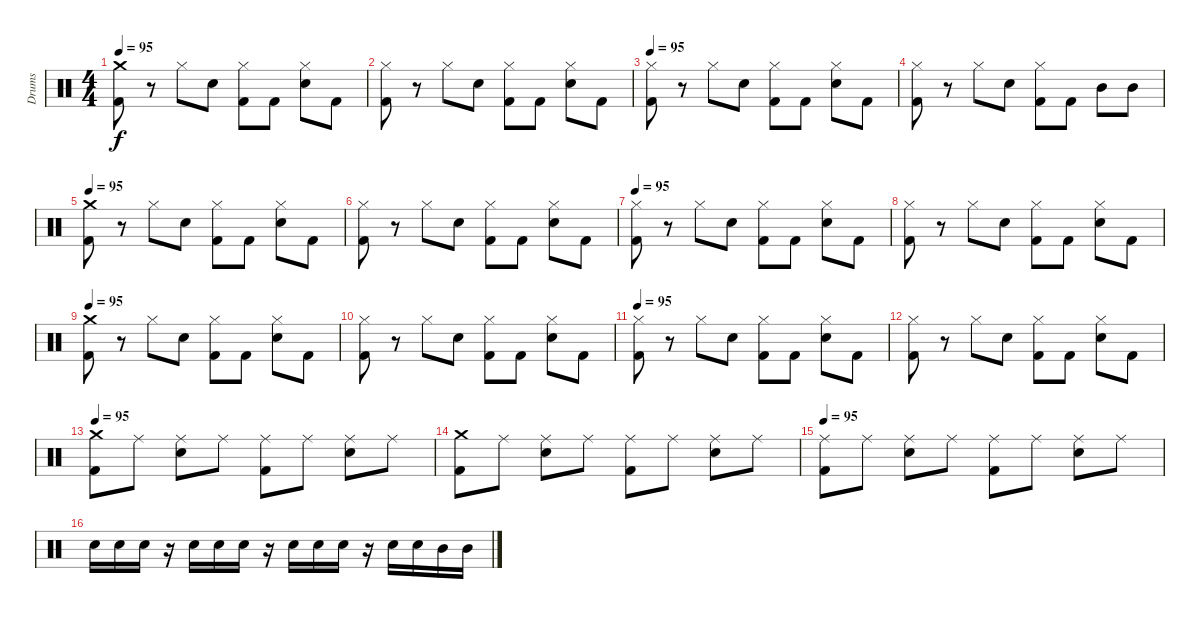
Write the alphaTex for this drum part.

\track ("Drums" "Drums") {instrument percussion}
\staff {score}
\articulation defaults
\ts (4 4)
\tempo 95
\clef neutral
\ks c
("Crash medium (hit)" "Kick (hit) 2").8{dy f} r.8 "Hi-Hat (closed)".8 "Electric Snare (hit)".8 ("Hi-Hat (closed)" "Kick (hit) 2").8 "Kick (hit) 2".8 ("Hi-Hat (closed)" "Electric Snare (hit)").8 "Kick (hit) 2".8 |
("Hi-Hat (closed)" "Kick (hit) 2").8 r.8 "Hi-Hat (closed)".8 "Electric Snare (hit)".8 ("Hi-Hat (closed)" "Kick (hit) 2").8 "Kick (hit) 2".8 ("Hi-Hat (closed)" "Electric Snare (hit)").8 "Kick (hit) 2".8 |
\tempo 95
("Hi-Hat (closed)" "Kick (hit) 2").8 r.8 "Hi-Hat (closed)".8 "Electric Snare (hit)".8 ("Hi-Hat (closed)" "Kick (hit) 2").8 "Kick (hit) 2".8 ("Hi-Hat (closed)" "Electric Snare (hit)").8 "Kick (hit) 2".8 |
("Hi-Hat (closed)" "Kick (hit) 2").8 r.8 "Hi-Hat (closed)".8 "Electric Snare (hit)".8 ("Hi-Hat (closed)" "Kick (hit) 2").8 "Kick (hit) 2".8 "Mid Tom (hit)".8 "Mid Tom (hit)".8 |
\tempo 95
("Crash medium (hit)" "Kick (hit) 2").8 r.8 "Hi-Hat (closed)".8 "Electric Snare (hit)".8 ("Hi-Hat (closed)" "Kick (hit) 2").8 "Kick (hit) 2".8 ("Hi-Hat (closed)" "Electric Snare (hit)").8 "Kick (hit) 2".8 |
("Hi-Hat (closed)" "Kick (hit) 2").8 r.8 "Hi-Hat (closed)".8 "Electric Snare (hit)".8 ("Hi-Hat (closed)" "Kick (hit) 2").8 "Kick (hit) 2".8 ("Hi-Hat (closed)" "Electric Snare (hit)").8 "Kick (hit) 2".8 |
\tempo 95
("Hi-Hat (closed)" "Kick (hit) 2").8 r.8 "Hi-Hat (closed)".8 "Electric Snare (hit)".8 ("Hi-Hat (closed)" "Kick (hit) 2").8 "Kick (hit) 2".8 ("Hi-Hat (closed)" "Electric Snare (hit)").8 "Kick (hit) 2".8 |
("Hi-Hat (closed)" "Kick (hit) 2").8 r.8 "Hi-Hat (closed)".8 "Electric Snare (hit)".8 ("Hi-Hat (closed)" "Kick (hit) 2").8 "Kick (hit) 2".8 ("Hi-Hat (closed)" "Electric Snare (hit)").8 "Kick (hit) 2".8 |
\tempo 95
("Crash medium (hit)" "Kick (hit) 2").8 r.8 "Hi-Hat (closed)".8 "Electric Snare (hit)".8 ("Hi-Hat (closed)" "Kick (hit) 2").8 "Kick (hit) 2".8 ("Hi-Hat (closed)" "Electric Snare (hit)").8 "Kick (hit) 2".8 |
("Hi-Hat (closed)" "Kick (hit) 2").8 r.8 "Hi-Hat (closed)".8 "Electric Snare (hit)".8 ("Hi-Hat (closed)" "Kick (hit) 2").8 "Kick (hit) 2".8 ("Hi-Hat (closed)" "Electric Snare (hit)").8 "Kick (hit) 2".8 |
\tempo 95
("Hi-Hat (closed)" "Kick (hit) 2").8 r.8 "Hi-Hat (closed)".8 "Electric Snare (hit)".8 ("Hi-Hat (closed)" "Kick (hit) 2").8 "Kick (hit) 2".8 ("Hi-Hat (closed)" "Electric Snare (hit)").8 "Kick (hit) 2".8 |
("Hi-Hat (closed)" "Kick (hit) 2").8 r.8 "Hi-Hat (closed)".8 "Electric Snare (hit)".8 ("Hi-Hat (closed)" "Kick (hit) 2").8 "Kick (hit) 2".8 ("Hi-Hat (closed)" "Electric Snare (hit)").8 "Kick (hit) 2".8 |
\tempo 95
("Crash medium (hit)" "Kick (hit) 2").8 "Ride (middle)".8 ("Ride (middle)" "Electric Snare (hit)").8 "Ride (middle)".8 ("Ride (middle)" "Kick (hit) 2").8 "Ride (middle)".8 ("Ride (middle)" "Electric Snare (hit)").8 "Ride (middle)".8 |
("Crash medium (hit)" "Kick (hit) 2").8 "Ride (middle)".8 ("Ride (middle)" "Electric Snare (hit)").8 "Ride (middle)".8 ("Ride (middle)" "Kick (hit) 2").8 "Ride (middle)".8 ("Ride (middle)" "Electric Snare (hit)").8 "Ride (middle)".8 |
\tempo 95
("Ride (middle)" "Kick (hit) 2").8 "Ride (middle)".8 ("Ride (middle)" "Electric Snare (hit)").8 "Ride (middle)".8 ("Ride (middle)" "Kick (hit) 2").8 "Ride (middle)".8 ("Ride (middle)" "Electric Snare (hit)").8 "Ride (middle)".8 |
"Electric Snare (hit)".16 "Electric Snare (hit)".16 "Electric Snare (hit)".16 r.16 "Electric Snare (hit)".16 "Electric Snare (hit)".16 "Electric Snare (hit)".16 r.16 "Electric Snare (hit)".16 "Electric Snare (hit)".16 "Electric Snare (hit)".16 r.16 "Electric Snare (hit)".16 "Electric Snare (hit)".16 "Mid Tom (hit)".16 "Mid Tom (hit)".16
